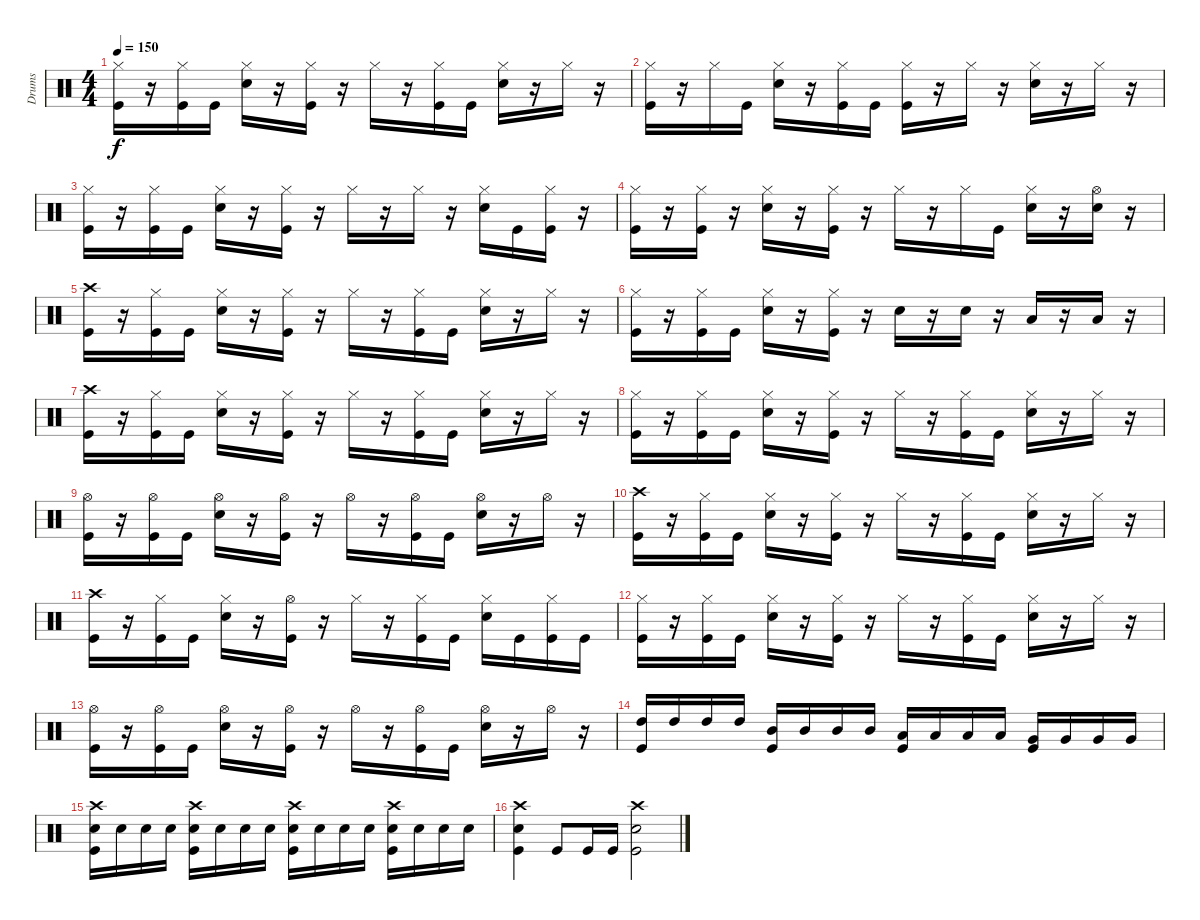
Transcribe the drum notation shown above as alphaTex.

\track ("Drums" "Drums") {instrument percussion}
\staff {score}
\articulation defaults
\ts (4 4)
\tempo 150
\clef neutral
\ks c
("Hi-Hat (closed)" "Kick (hit)").16{dy f} r.16 ("Hi-Hat (closed)" "Kick (hit)").16 "Kick (hit)".16 ("Hi-Hat (closed)" "Electric Snare (hit)").16 r.16 ("Hi-Hat (closed)" "Kick (hit)").16 r.16 "Hi-Hat (closed)".16 r.16 ("Hi-Hat (closed)" "Kick (hit)").16 "Kick (hit)".16 ("Hi-Hat (closed)" "Electric Snare (hit)").16 r.16 "Hi-Hat (closed)".16 r.16 |
("Hi-Hat (closed)" "Kick (hit)").16 r.16 "Hi-Hat (closed)".16 "Kick (hit)".16 ("Hi-Hat (closed)" "Electric Snare (hit)").16 r.16 ("Hi-Hat (closed)" "Kick (hit)").16 "Kick (hit)".16 ("Hi-Hat (closed)" "Kick (hit)").16 r.16 "Hi-Hat (closed)".16 r.16 ("Hi-Hat (closed)" "Electric Snare (hit)").16 r.16 "Hi-Hat (closed)".16 r.16 |
("Hi-Hat (closed)" "Kick (hit)").16 r.16 ("Hi-Hat (closed)" "Kick (hit)").16 "Kick (hit)".16 ("Hi-Hat (closed)" "Electric Snare (hit)").16 r.16 ("Hi-Hat (closed)" "Kick (hit)").16 r.16 "Hi-Hat (closed)".16 r.16 "Hi-Hat (closed)".16 r.16 ("Hi-Hat (closed)" "Electric Snare (hit)").16 "Kick (hit)".16 ("Hi-Hat (closed)" "Kick (hit)").16 r.16 |
("Hi-Hat (closed)" "Kick (hit)").16 r.16 ("Hi-Hat (closed)" "Kick (hit)").16 r.16 ("Hi-Hat (closed)" "Electric Snare (hit)").16 r.16 ("Hi-Hat (closed)" "Kick (hit)").16 r.16 "Hi-Hat (closed)".16 r.16 "Hi-Hat (closed)".16 "Kick (hit)".16 ("Hi-Hat (closed)" "Electric Snare (hit)").16 r.16 ("Hi-Hat (open)" "Electric Snare (hit)").16 r.16 |
("Crash high (hit)" "Kick (hit)").16 r.16 ("Hi-Hat (closed)" "Kick (hit)").16 "Kick (hit)".16 ("Hi-Hat (closed)" "Electric Snare (hit)").16 r.16 ("Hi-Hat (closed)" "Kick (hit)").16 r.16 "Hi-Hat (closed)".16 r.16 ("Hi-Hat (closed)" "Kick (hit)").16 "Kick (hit)".16 ("Hi-Hat (closed)" "Electric Snare (hit)").16 r.16 "Hi-Hat (closed)".16 r.16 |
("Hi-Hat (closed)" "Kick (hit)").16 r.16 ("Hi-Hat (closed)" "Kick (hit)").16 "Kick (hit)".16 ("Hi-Hat (closed)" "Electric Snare (hit)").16 r.16 ("Hi-Hat (closed)" "Kick (hit)").16 r.16 "Electric Snare (hit)".16 r.16 "Electric Snare (hit)".16 r.16 "Low Tom (hit)".16 r.16 "Low Tom (hit)".16 r.16 |
("Crash high (hit)" "Kick (hit)").16 r.16 ("Hi-Hat (closed)" "Kick (hit)").16 "Kick (hit)".16 ("Hi-Hat (closed)" "Electric Snare (hit)").16 r.16 ("Hi-Hat (closed)" "Kick (hit)").16 r.16 "Hi-Hat (closed)".16 r.16 ("Hi-Hat (closed)" "Kick (hit)").16 "Kick (hit)".16 ("Hi-Hat (closed)" "Electric Snare (hit)").16 r.16 "Hi-Hat (closed)".16 r.16 |
("Hi-Hat (closed)" "Kick (hit)").16 r.16 ("Hi-Hat (closed)" "Kick (hit)").16 "Kick (hit)".16 ("Hi-Hat (closed)" "Electric Snare (hit)").16 r.16 ("Hi-Hat (closed)" "Kick (hit)").16 r.16 "Hi-Hat (closed)".16 r.16 ("Hi-Hat (closed)" "Kick (hit)").16 "Kick (hit)".16 ("Hi-Hat (closed)" "Electric Snare (hit)").16 r.16 "Hi-Hat (closed)".16 r.16 |
("Hi-Hat (open)" "Kick (hit)").16 r.16 ("Hi-Hat (open)" "Kick (hit)").16 "Kick (hit)".16 ("Hi-Hat (open)" "Electric Snare (hit)").16 r.16 ("Hi-Hat (open)" "Kick (hit)").16 r.16 "Hi-Hat (open)".16 r.16 ("Hi-Hat (open)" "Kick (hit)").16 "Kick (hit)".16 ("Hi-Hat (open)" "Electric Snare (hit)").16 r.16 "Hi-Hat (open)".16 r.16 |
("Crash high (hit)" "Kick (hit)").16 r.16 ("Hi-Hat (closed)" "Kick (hit)").16 "Kick (hit)".16 ("Hi-Hat (closed)" "Electric Snare (hit)").16 r.16 ("Hi-Hat (closed)" "Kick (hit)").16 r.16 "Hi-Hat (closed)".16 r.16 ("Hi-Hat (closed)" "Kick (hit)").16 "Kick (hit)".16 ("Hi-Hat (closed)" "Electric Snare (hit)").16 r.16 "Hi-Hat (closed)".16 r.16 |
("Crash high (hit)" "Kick (hit)").16 r.16 ("Hi-Hat (closed)" "Kick (hit)").16 "Kick (hit)".16 ("Hi-Hat (closed)" "Electric Snare (hit)").16 r.16 ("Hi-Hat (open)" "Kick (hit)").16 r.16 "Hi-Hat (closed)".16 r.16 ("Hi-Hat (closed)" "Kick (hit)").16 "Kick (hit)".16 ("Hi-Hat (closed)" "Electric Snare (hit)").16 "Kick (hit)".16 ("Hi-Hat (closed)" "Kick (hit)").16 "Kick (hit)".16 |
("Hi-Hat (closed)" "Kick (hit)").16 r.16 ("Hi-Hat (closed)" "Kick (hit)").16 "Kick (hit)".16 ("Hi-Hat (closed)" "Electric Snare (hit)").16 r.16 ("Hi-Hat (closed)" "Kick (hit)").16 r.16 "Hi-Hat (closed)".16 r.16 ("Hi-Hat (closed)" "Kick (hit)").16 "Kick (hit)".16 ("Hi-Hat (closed)" "Electric Snare (hit)").16 r.16 "Hi-Hat (closed)".16 r.16 |
("Hi-Hat (open)" "Kick (hit)").16 r.16 ("Hi-Hat (open)" "Kick (hit)").16 "Kick (hit)".16 ("Hi-Hat (open)" "Electric Snare (hit)").16 r.16 ("Hi-Hat (open)" "Kick (hit)").16 r.16 "Hi-Hat (open)".16 r.16 ("Hi-Hat (open)" "Kick (hit)").16 "Kick (hit)".16 ("Hi-Hat (open)" "Electric Snare (hit)").16 r.16 "Hi-Hat (open)".16 r.16 |
("High Tom (hit)" "Kick (hit)").16 "High Tom (hit)".16 "High Tom (hit)".16 "High Tom (hit)".16 ("Mid Tom (hit)" "Kick (hit)").16 "Mid Tom (hit)".16 "Mid Tom (hit)".16 "Mid Tom (hit)".16 ("Low Tom (hit)" "Kick (hit)").16 "Low Tom (hit)".16 "Low Tom (hit)".16 "Low Tom (hit)".16 ("Very Low Tom (hit)" "Kick (hit)").16 "Very Low Tom (hit)".16 "Very Low Tom (hit)".16 "Very Low Tom (hit)".16 |
("Crash high (hit)" "Electric Snare (hit)" "Kick (hit)").16 "Electric Snare (hit)".16 "Electric Snare (hit)".16 "Electric Snare (hit)".16 ("Crash high (hit)" "Electric Snare (hit)" "Kick (hit)").16 "Electric Snare (hit)".16 "Electric Snare (hit)".16 "Electric Snare (hit)".16 ("Crash high (hit)" "Electric Snare (hit)" "Kick (hit)").16 "Electric Snare (hit)".16 "Electric Snare (hit)".16 "Electric Snare (hit)".16 ("Crash high (hit)" "Electric Snare (hit)" "Kick (hit)").16 "Electric Snare (hit)".16 "Electric Snare (hit)".16 "Electric Snare (hit)".16 |
("Crash high (hit)" "Kick (hit)" "Electric Snare (hit)").4 "Kick (hit)".8 "Kick (hit)".16 "Kick (hit)".16 ("Crash high (hit)" "Kick (hit)" "Electric Snare (hit)").2
